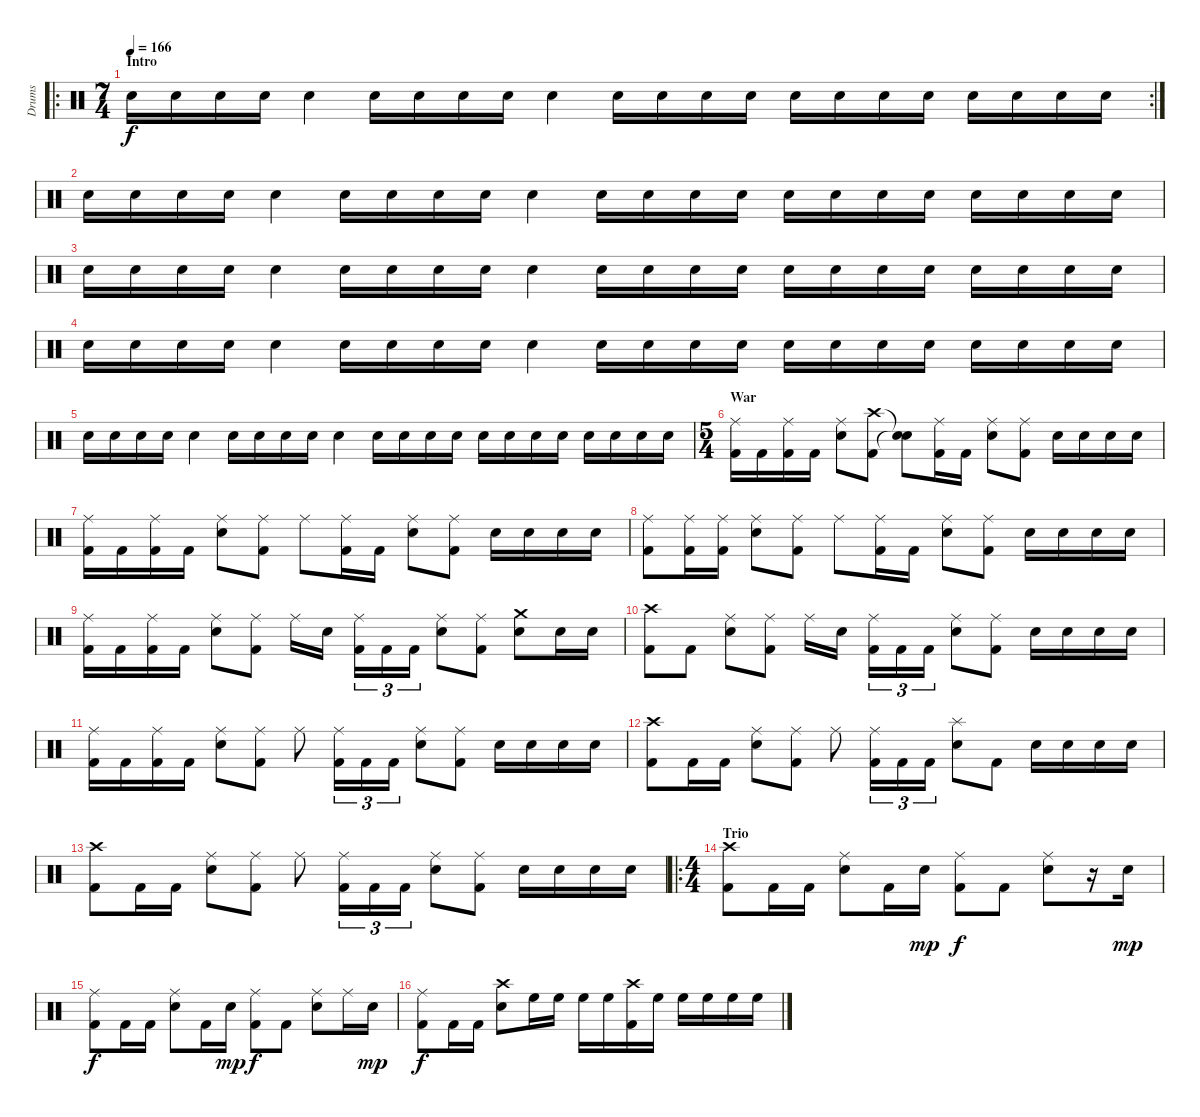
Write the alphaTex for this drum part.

\track ("Drums" "Drums") {instrument percussion}
\staff {score}
\articulation defaults
\ro
\rc 2
\ts (7 4)
\section ("" "Intro")
\tempo 166
\clef neutral
\ks c "Snare (hit) 2".16{dy f} "Snare (hit) 2".16 "Snare (hit) 2".16 "Snare (hit) 2".16 "Snare (hit) 2".4 "Snare (hit) 2".16 "Snare (hit) 2".16 "Snare (hit) 2".16 "Snare (hit) 2".16 "Snare (hit) 2".4 "Snare (hit) 2".16 "Snare (hit) 2".16 "Snare (hit) 2".16 "Snare (hit) 2".16 "Snare (hit) 2".16 "Snare (hit) 2".16 "Snare (hit) 2".16 "Snare (hit) 2".16 "Snare (hit) 2".16 "Snare (hit) 2".16 "Snare (hit) 2".16 "Snare (hit) 2".16
|
"Snare (hit) 2".16 "Snare (hit) 2".16 "Snare (hit) 2".16 "Snare (hit) 2".16 "Snare (hit) 2".4 "Snare (hit) 2".16 "Snare (hit) 2".16 "Snare (hit) 2".16 "Snare (hit) 2".16 "Snare (hit) 2".4 "Snare (hit) 2".16 "Snare (hit) 2".16 "Snare (hit) 2".16 "Snare (hit) 2".16 "Snare (hit) 2".16 "Snare (hit) 2".16 "Snare (hit) 2".16 "Snare (hit) 2".16 "Snare (hit) 2".16 "Snare (hit) 2".16 "Snare (hit) 2".16 "Snare (hit) 2".16 |
"Snare (hit) 2".16 "Snare (hit) 2".16 "Snare (hit) 2".16 "Snare (hit) 2".16 "Snare (hit) 2".4 "Snare (hit) 2".16 "Snare (hit) 2".16 "Snare (hit) 2".16 "Snare (hit) 2".16 "Snare (hit) 2".4 "Snare (hit) 2".16 "Snare (hit) 2".16 "Snare (hit) 2".16 "Snare (hit) 2".16 "Snare (hit) 2".16 "Snare (hit) 2".16 "Snare (hit) 2".16 "Snare (hit) 2".16 "Snare (hit) 2".16 "Snare (hit) 2".16 "Snare (hit) 2".16 "Snare (hit) 2".16 |
"Snare (hit) 2".16 "Snare (hit) 2".16 "Snare (hit) 2".16 "Snare (hit) 2".16 "Snare (hit) 2".4 "Snare (hit) 2".16 "Snare (hit) 2".16 "Snare (hit) 2".16 "Snare (hit) 2".16 "Snare (hit) 2".4 "Snare (hit) 2".16 "Snare (hit) 2".16 "Snare (hit) 2".16 "Snare (hit) 2".16 "Snare (hit) 2".16 "Snare (hit) 2".16 "Snare (hit) 2".16 "Snare (hit) 2".16 "Snare (hit) 2".16 "Snare (hit) 2".16 "Snare (hit) 2".16 "Snare (hit) 2".16 |
"Snare (hit) 2".16 "Snare (hit) 2".16 "Snare (hit) 2".16 "Snare (hit) 2".16 "Snare (hit) 2".4 "Snare (hit) 2".16 "Snare (hit) 2".16 "Snare (hit) 2".16 "Snare (hit) 2".16 "Snare (hit) 2".4 "Snare (hit) 2".16 "Snare (hit) 2".16 "Snare (hit) 2".16 "Snare (hit) 2".16 "Snare (hit) 2".16 "Snare (hit) 2".16 "Snare (hit) 2".16 "Snare (hit) 2".16 "Snare (hit) 2".16 "Snare (hit) 2".16 "Snare (hit) 2".16 "Snare (hit) 2".16 |
\ts (5 4)
\section ("" "War")
("Ride (middle)" "Kick (hit) 2").16 "Kick (hit) 2".16 ("Ride (middle)" "Kick (hit) 2").16 "Kick (hit) 2".16 ("Ride (middle)" "Snare (hit) 2").8 ("Crash high (hit)" "Kick (hit) 2").8 ("Snare (hit)"{t} "Snare (hit)"{t}).8 ("Ride (middle)" "Kick (hit) 2").16 "Kick (hit) 2".16 ("Ride (middle)" "Snare (hit) 2").8 ("Ride (middle)" "Kick (hit) 2").8 "Snare (hit) 2".16 "Snare (hit) 2".16 "Snare (hit) 2".16 "Snare (hit) 2".16 |
("Ride (middle)" "Kick (hit) 2").16 "Kick (hit) 2".16 ("Ride (middle)" "Kick (hit) 2").16 "Kick (hit) 2".16 ("Ride (middle)" "Snare (hit) 2").8 ("Ride (middle)" "Kick (hit) 2").8 "Ride (middle)".8 ("Ride (middle)" "Kick (hit) 2").16 "Kick (hit) 2".16 ("Ride (middle)" "Snare (hit) 2").8 ("Ride (middle)" "Kick (hit) 2").8 "Snare (hit) 2".16 "Snare (hit) 2".16 "Snare (hit) 2".16 "Snare (hit) 2".16 |
("Ride (middle)" "Kick (hit) 2").8 ("Ride (middle)" "Kick (hit) 2").16 ("Ride (middle)" "Kick (hit) 2").16 ("Ride (middle)" "Snare (hit) 2").8 ("Ride (middle)" "Kick (hit) 2").8 "Ride (middle)".8 ("Ride (middle)" "Kick (hit) 2").16 "Kick (hit) 2".16 ("Ride (middle)" "Snare (hit) 2").8 ("Ride (middle)" "Kick (hit) 2").8 "Snare (hit) 2".16 "Snare (hit) 2".16 "Snare (hit) 2".16 "Snare (hit) 2".16 |
("Ride (middle)" "Kick (hit) 2").16 "Kick (hit) 2".16 ("Ride (middle)" "Kick (hit) 2").16 "Kick (hit) 2".16 ("Ride (middle)" "Snare (hit) 2").8 ("Ride (middle)" "Kick (hit) 2").8 "Ride (middle)".16 "Snare (hit) 2".16 ("Ride (middle)" "Kick (hit) 2").16{tu (3 2)} "Kick (hit) 2".16{tu (3 2)} "Kick (hit) 2".16{tu (3 2)} ("Ride (middle)" "Snare (hit) 2").8 ("Ride (middle)" "Kick (hit) 2").8 ("Crash medium (hit)" "Snare (hit) 2").8 "Snare (hit) 2".16 "Snare (hit) 2".16 |
("Crash high (hit)" "Kick (hit) 2").8 "Kick (hit) 2".8 ("Ride (middle)" "Snare (hit) 2").8 ("Ride (middle)" "Kick (hit) 2").8 "Ride (middle)".16 "Snare (hit) 2".16 ("Ride (middle)" "Kick (hit) 2").16{tu (3 2)} "Kick (hit) 2".16{tu (3 2)} "Kick (hit) 2".16{tu (3 2)} ("Ride (middle)" "Snare (hit) 2").8 ("Ride (middle)" "Kick (hit) 2").8 "Snare (hit) 2".16 "Snare (hit) 2".16 "Snare (hit) 2".16 "Snare (hit) 2".16 |
("Ride (middle)" "Kick (hit) 2").16 "Kick (hit) 2".16 ("Ride (middle)" "Kick (hit) 2").16 "Kick (hit) 2".16 ("Ride (middle)" "Snare (hit) 2").8 ("Ride (middle)" "Kick (hit) 2").8 "Ride (middle)".8 ("Ride (middle)" "Kick (hit) 2").16{tu (3 2)} "Kick (hit) 2".16{tu (3 2)} "Kick (hit) 2".16{tu (3 2)} ("Ride (middle)" "Snare (hit) 2").8 ("Ride (middle)" "Kick (hit) 2").8 "Snare (hit) 2".16 "Snare (hit) 2".16 "Snare (hit) 2".16 "Snare (hit) 2".16 |
("Crash high (hit)" "Kick (hit) 2").8 "Kick (hit) 2".16 "Kick (hit) 2".16 ("Ride (middle)" "Snare (hit) 2").8 ("Ride (middle)" "Kick (hit) 2").8 "Ride (middle)".8 ("Ride (middle)" "Kick (hit) 2").16{tu (3 2)} "Kick (hit) 2".16{tu (3 2)} "Kick (hit) 2".16{tu (3 2)} ("Splash (hit)" "Snare (hit) 2").8 "Kick (hit) 2".8 "Snare (hit) 2".16 "Snare (hit) 2".16 "Snare (hit) 2".16 "Snare (hit) 2".16 |
("Crash high (hit)" "Kick (hit) 2").8 "Kick (hit) 2".16 "Kick (hit) 2".16 ("Ride (middle)" "Snare (hit) 2").8 ("Ride (middle)" "Kick (hit) 2").8 "Ride (middle)".8 ("Ride (middle)" "Kick (hit) 2").16{tu (3 2)} "Kick (hit) 2".16{tu (3 2)} "Kick (hit) 2".16{tu (3 2)} ("Ride (middle)" "Snare (hit) 2").8 ("Ride (middle)" "Kick (hit) 2").8 "Snare (hit) 2".16 "Snare (hit) 2".16 "Snare (hit) 2".16 "Snare (hit) 2".16 |
\ro
\ts (4 4)
\section ("" "Trio")
("Crash high (hit)" "Kick (hit) 2").8 "Kick (hit) 2".16 "Kick (hit) 2".16 ("Ride (middle)" "Snare (hit) 2").8 "Kick (hit) 2".16 "Snare (hit) 2".16{dy mp} ("Ride (middle)" "Kick (hit) 2").8{dy f} "Kick (hit) 2".8 ("Ride (middle)" "Snare (hit) 2").8 r.16 "Snare (hit) 2".16{dy mp} |
("Ride (middle)" "Kick (hit) 2").8{dy f} "Kick (hit) 2".16 "Kick (hit) 2".16 ("Ride (middle)" "Snare (hit) 2").8 "Kick (hit) 2".16 "Snare (hit) 2".16{dy mp} ("Ride (middle)" "Kick (hit) 2").8{dy f} "Kick (hit) 2".8 ("Ride (middle)" "Snare (hit) 2").8 "Ride (middle)".16 "Snare (hit) 2".16{dy mp} |
("Ride (middle)" "Kick (hit) 2").8{dy f} "Kick (hit) 2".16 "Kick (hit) 2".16 ("Crash high (hit)" "Snare (hit) 2").8 "High Floor Tom (hit)".16 "High Floor Tom (hit)".16 "High Floor Tom (hit)".16 "High Floor Tom (hit)".16 ("Crash high (hit)" "Kick (hit) 2").16 "High Floor Tom (hit)".16 "High Floor Tom (hit)".16 "High Floor Tom (hit)".16 "High Floor Tom (hit)".16 "High Floor Tom (hit)".16
